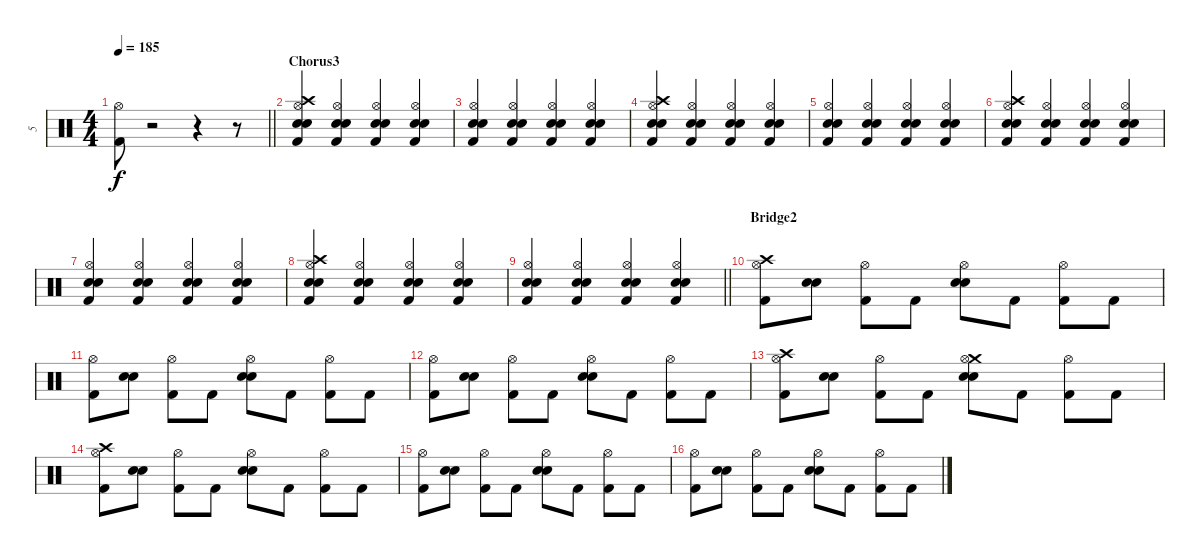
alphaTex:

\track ("5" "5") {instrument percussion}
\staff {score}
\articulation defaults
\ts (4 4)
\tempo 185
\clef neutral
\barLineRight lightlight
\ks c
("Kick (hit) 2" "Hi-Hat (open)").8{dy f} r.2 r.4 r.8 |
\section ("" "Chorus3")
("Crash high (hit)" "Hi-Hat (open)" "Kick (hit) 2" "Snare (hit) 2" "Electric Snare (hit)").4 ("Hi-Hat (open)" "Kick (hit) 2" "Snare (hit) 2" "Electric Snare (hit)").4 ("Hi-Hat (open)" "Kick (hit) 2" "Snare (hit) 2" "Electric Snare (hit)").4 ("Hi-Hat (open)" "Kick (hit) 2" "Snare (hit) 2" "Electric Snare (hit)").4 |
("Hi-Hat (open)" "Kick (hit) 2" "Snare (hit) 2" "Electric Snare (hit)").4 ("Hi-Hat (open)" "Kick (hit) 2" "Snare (hit) 2" "Electric Snare (hit)").4 ("Hi-Hat (open)" "Kick (hit) 2" "Snare (hit) 2" "Electric Snare (hit)").4 ("Hi-Hat (open)" "Kick (hit) 2" "Snare (hit) 2" "Electric Snare (hit)").4 |
("Crash high (hit)" "Hi-Hat (open)" "Kick (hit) 2" "Snare (hit) 2" "Electric Snare (hit)").4 ("Hi-Hat (open)" "Kick (hit) 2" "Snare (hit) 2" "Electric Snare (hit)").4 ("Hi-Hat (open)" "Kick (hit) 2" "Snare (hit) 2" "Electric Snare (hit)").4 ("Hi-Hat (open)" "Kick (hit) 2" "Snare (hit) 2" "Electric Snare (hit)").4 |
("Hi-Hat (open)" "Kick (hit) 2" "Snare (hit) 2" "Electric Snare (hit)").4 ("Hi-Hat (open)" "Kick (hit) 2" "Snare (hit) 2" "Electric Snare (hit)").4 ("Hi-Hat (open)" "Kick (hit) 2" "Snare (hit) 2" "Electric Snare (hit)").4 ("Hi-Hat (open)" "Kick (hit) 2" "Snare (hit) 2" "Electric Snare (hit)").4 |
("Crash high (hit)" "Hi-Hat (open)" "Kick (hit) 2" "Snare (hit) 2" "Electric Snare (hit)").4 ("Hi-Hat (open)" "Kick (hit) 2" "Snare (hit) 2" "Electric Snare (hit)").4 ("Hi-Hat (open)" "Kick (hit) 2" "Snare (hit) 2" "Electric Snare (hit)").4 ("Hi-Hat (open)" "Kick (hit) 2" "Snare (hit) 2" "Electric Snare (hit)").4 |
("Hi-Hat (open)" "Kick (hit) 2" "Snare (hit) 2" "Electric Snare (hit)").4 ("Hi-Hat (open)" "Kick (hit) 2" "Snare (hit) 2" "Electric Snare (hit)").4 ("Hi-Hat (open)" "Kick (hit) 2" "Snare (hit) 2" "Electric Snare (hit)").4 ("Hi-Hat (open)" "Kick (hit) 2" "Snare (hit) 2" "Electric Snare (hit)").4 |
("Crash high (hit)" "Hi-Hat (open)" "Kick (hit) 2" "Snare (hit) 2" "Electric Snare (hit)").4 ("Hi-Hat (open)" "Kick (hit) 2" "Snare (hit) 2" "Electric Snare (hit)").4 ("Hi-Hat (open)" "Kick (hit) 2" "Snare (hit) 2" "Electric Snare (hit)").4 ("Hi-Hat (open)" "Kick (hit) 2" "Snare (hit) 2" "Electric Snare (hit)").4 |
\barLineRight lightlight
("Hi-Hat (open)" "Kick (hit) 2" "Snare (hit) 2" "Electric Snare (hit)").4 ("Hi-Hat (open)" "Kick (hit) 2" "Snare (hit) 2" "Electric Snare (hit)").4 ("Hi-Hat (open)" "Kick (hit) 2" "Snare (hit) 2" "Electric Snare (hit)").4 ("Hi-Hat (open)" "Kick (hit) 2" "Snare (hit) 2" "Electric Snare (hit)").4 |
\section ("" "Bridge2")
("Crash high (hit)" "Hi-Hat (open)" "Kick (hit) 2").8 ("Electric Snare (hit)" "Snare (hit) 2").8 ("Hi-Hat (open)" "Kick (hit) 2").8 "Kick (hit) 2".8 ("Hi-Hat (open)" "Electric Snare (hit)" "Snare (hit) 2").8 "Kick (hit) 2".8 ("Hi-Hat (open)" "Kick (hit) 2").8 "Kick (hit) 2".8 |
("Hi-Hat (open)" "Kick (hit) 2").8 ("Electric Snare (hit)" "Snare (hit) 2").8 ("Hi-Hat (open)" "Kick (hit) 2").8 "Kick (hit) 2".8 ("Hi-Hat (open)" "Electric Snare (hit)" "Snare (hit) 2").8 "Kick (hit) 2".8 ("Hi-Hat (open)" "Kick (hit) 2").8 "Kick (hit) 2".8 |
("Hi-Hat (open)" "Kick (hit) 2").8 ("Electric Snare (hit)" "Snare (hit) 2").8 ("Hi-Hat (open)" "Kick (hit) 2").8 "Kick (hit) 2".8 ("Hi-Hat (open)" "Electric Snare (hit)" "Snare (hit) 2").8 "Kick (hit) 2".8 ("Hi-Hat (open)" "Kick (hit) 2").8 "Kick (hit) 2".8 |
("Crash high (hit)" "Hi-Hat (open)" "Kick (hit) 2").8 ("Electric Snare (hit)" "Snare (hit) 2").8 ("Hi-Hat (open)" "Kick (hit) 2").8 "Kick (hit) 2".8 ("Crash medium (hit)" "Hi-Hat (open)" "Electric Snare (hit)" "Snare (hit) 2").8 "Kick (hit) 2".8 ("Hi-Hat (open)" "Kick (hit) 2").8 "Kick (hit) 2".8 |
("Crash high (hit)" "Hi-Hat (open)" "Kick (hit) 2").8 ("Electric Snare (hit)" "Snare (hit) 2").8 ("Hi-Hat (open)" "Kick (hit) 2").8 "Kick (hit) 2".8 ("Hi-Hat (open)" "Electric Snare (hit)" "Snare (hit) 2").8 "Kick (hit) 2".8 ("Hi-Hat (open)" "Kick (hit) 2").8 "Kick (hit) 2".8 |
("Hi-Hat (open)" "Kick (hit) 2").8 ("Electric Snare (hit)" "Snare (hit) 2").8 ("Hi-Hat (open)" "Kick (hit) 2").8 "Kick (hit) 2".8 ("Hi-Hat (open)" "Electric Snare (hit)" "Snare (hit) 2").8 "Kick (hit) 2".8 ("Hi-Hat (open)" "Kick (hit) 2").8 "Kick (hit) 2".8 |
("Hi-Hat (open)" "Kick (hit) 2").8 ("Electric Snare (hit)" "Snare (hit) 2").8 ("Hi-Hat (open)" "Kick (hit) 2").8 "Kick (hit) 2".8 ("Hi-Hat (open)" "Electric Snare (hit)" "Snare (hit) 2").8 "Kick (hit) 2".8 ("Hi-Hat (open)" "Kick (hit) 2").8 "Kick (hit) 2".8
